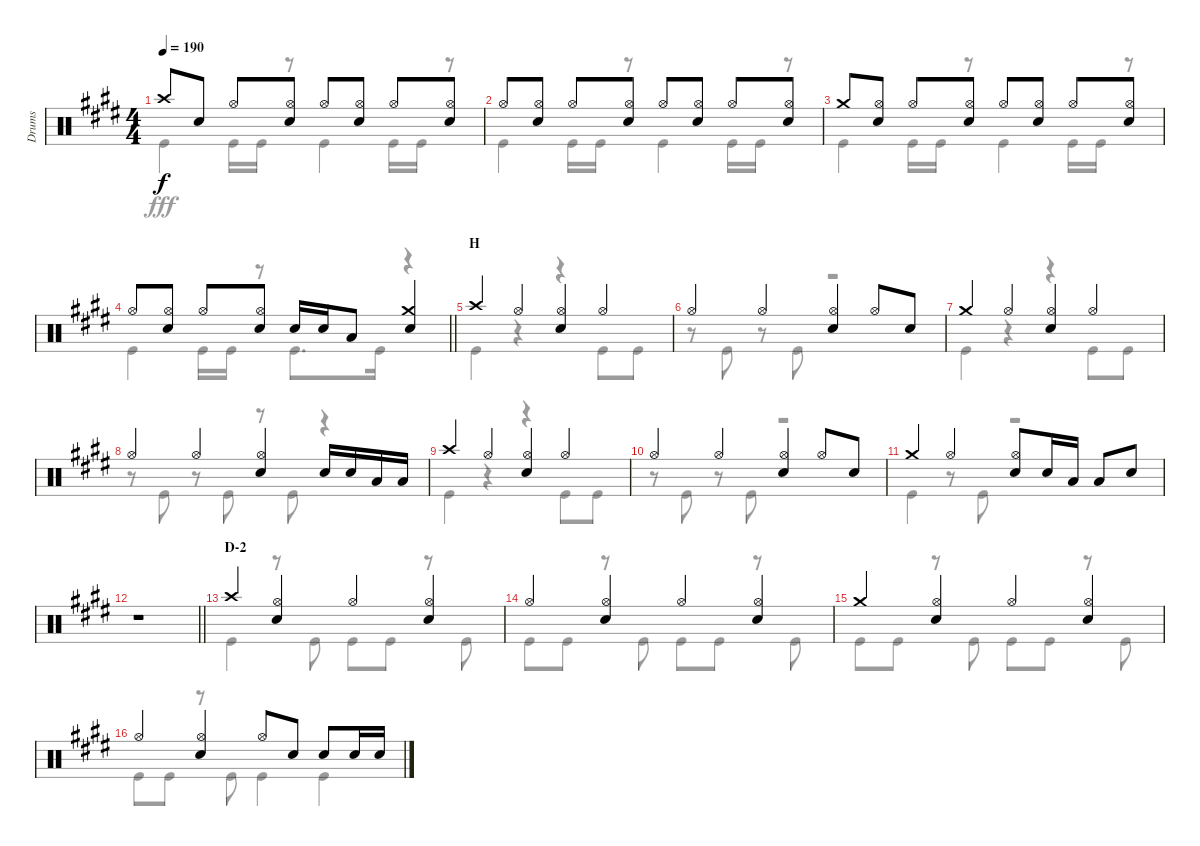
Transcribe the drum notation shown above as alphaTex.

\track ("Drums" "Drums") {instrument percussion}
\staff {score}
\articulation defaults
\voice
\ts (4 4)
\tempo 190
\clef neutral
\ks e "Crash high (hit)".8{dy f} "Snare (hit) 2".8 "Hi-Hat (open)".8
("Hi-Hat (open)" "Snare (hit) 2").8 "Hi-Hat (open)".8 ("Hi-Hat (open)" "Snare (hit) 2").8 "Hi-Hat (open)".8 ("Hi-Hat (open)" "Snare (hit) 2").8 |
"Hi-Hat (open)".8 ("Hi-Hat (open)" "Snare (hit) 2").8 "Hi-Hat (open)".8 ("Hi-Hat (open)" "Snare (hit) 2").8 "Hi-Hat (open)".8 ("Hi-Hat (open)" "Snare (hit) 2").8 "Hi-Hat (open)".8 ("Hi-Hat (open)" "Snare (hit) 2").8 |
"Crash medium (hit)".8 ("Hi-Hat (open)" "Snare (hit) 2").8 "Hi-Hat (open)".8 ("Hi-Hat (open)" "Snare (hit) 2").8 "Hi-Hat (open)".8 ("Hi-Hat (open)" "Snare (hit) 2").8 "Hi-Hat (open)".8 ("Hi-Hat (open)" "Snare (hit) 2").8 |
\barLineRight lightlight "Hi-Hat (open)".8
("Hi-Hat (open)" "Snare (hit) 2").8 "Hi-Hat (open)".8 ("Hi-Hat (open)" "Snare (hit) 2").8 "Snare (hit) 2".16 "Snare (hit) 2".16 "Low Tom (hit)".8 ("Crash medium (hit)" "Snare (hit) 2").4 |
\section ("" "H")
"Crash high (hit)".4 "Hi-Hat (open)".4 ("Hi-Hat (open)" "Snare (hit) 2").4 "Hi-Hat (open)".4 |
"Hi-Hat (open)".4 "Hi-Hat (open)".4 ("Hi-Hat (open)" "Snare (hit) 2").4 "Hi-Hat (open)".8 "Snare (hit) 2".8 |
"Crash medium (hit)".4 "Hi-Hat (open)".4 ("Hi-Hat (open)" "Snare (hit) 2").4 "Hi-Hat (open)".4 |
"Hi-Hat (open)".4 "Hi-Hat (open)".4 ("Hi-Hat (open)" "Snare (hit) 2").4 "Snare (hit) 2".16 "Snare (hit) 2".16 "Low Tom (hit)".16 "Low Tom (hit)".16 |
"Crash high (hit)".4 "Hi-Hat (open)".4 ("Hi-Hat (open)" "Snare (hit) 2").4 "Hi-Hat (open)".4 |
"Hi-Hat (open)".4 "Hi-Hat (open)".4 ("Hi-Hat (open)" "Snare (hit) 2").4 "Hi-Hat (open)".8 "Snare (hit) 2".8 |
"Crash medium (hit)".4 "Hi-Hat (open)".4 ("Hi-Hat (open)" "Snare (hit) 2").8 "Snare (hit) 2".16 "Low Tom (hit)".16 "Low Tom (hit)".8 "Snare (hit) 2".8 |
\barLineRight lightlight
r.1 |
\section ("" "D-2")
"Crash high (hit)".4 ("Hi-Hat (open)" "Snare (hit) 2").4 "Hi-Hat (open)".4 ("Hi-Hat (open)" "Snare (hit) 2").4 |
"Hi-Hat (open)".4 ("Hi-Hat (open)" "Snare (hit) 2").4 "Hi-Hat (open)".4 ("Hi-Hat (open)" "Snare (hit) 2").4 |
"Crash medium (hit)".4 ("Hi-Hat (open)" "Snare (hit) 2").4 "Hi-Hat (open)".4 ("Hi-Hat (open)" "Snare (hit) 2").4 |
"Hi-Hat (open)".4 ("Hi-Hat (open)" "Snare (hit) 2").4 "Hi-Hat (open)".8 "Snare (hit) 2".8 "Snare (hit) 2".8 "Snare (hit) 2".16 "Snare (hit) 2".16
\voice
\clef neutral
\ottava regular
\simile none
\ks e "Kick (hit)".4{dy fff} "Kick (hit)".16 "Kick (hit)".16
r.8 "Kick (hit)".4 "Kick (hit)".16 "Kick (hit)".16 r.8 |
"Kick (hit)".4 "Kick (hit)".16 "Kick (hit)".16 r.8 "Kick (hit)".4 "Kick (hit)".16 "Kick (hit)".16 r.8 |
"Kick (hit)".4 "Kick (hit)".16 "Kick (hit)".16 r.8 "Kick (hit)".4 "Kick (hit)".16 "Kick (hit)".16 r.8 |
\barLineRight lightlight "Kick (hit)".4 "Kick (hit)".16 "Kick (hit)".16
r.8 "Kick (hit)".8{d} "Kick (hit)".16 r.4 |
"Kick (hit)".4 r.4 r.4 "Kick (hit)".8 "Kick (hit)".8 |
r.8 "Kick (hit)".8 r.8 "Kick (hit)".8 r.2 |
"Kick (hit)".4 r.4 r.4 "Kick (hit)".8 "Kick (hit)".8 |
r.8 "Kick (hit)".8 r.8 "Kick (hit)".8 r.8 "Kick (hit)".8 r.4 |
"Kick (hit)".4 r.4 r.4 "Kick (hit)".8 "Kick (hit)".8 |
r.8 "Kick (hit)".8 r.8 "Kick (hit)".8 r.2 |
"Kick (hit)".4 r.8 "Kick (hit)".8 r.2 |
\barLineRight lightlight
r.1 |
"Kick (hit)".4 r.8 "Kick (hit)".8 "Kick (hit)".8 "Kick (hit)".8 r.8 "Kick (hit)".8 |
"Kick (hit)".8 "Kick (hit)".8 r.8 "Kick (hit)".8 "Kick (hit)".8 "Kick (hit)".8 r.8 "Kick (hit)".8 |
"Kick (hit)".8 "Kick (hit)".8 r.8 "Kick (hit)".8 "Kick (hit)".8 "Kick (hit)".8 r.8 "Kick (hit)".8 |
"Kick (hit)".8 "Kick (hit)".8 r.8 "Kick (hit)".8 "Kick (hit)".4 "Kick (hit)".4
